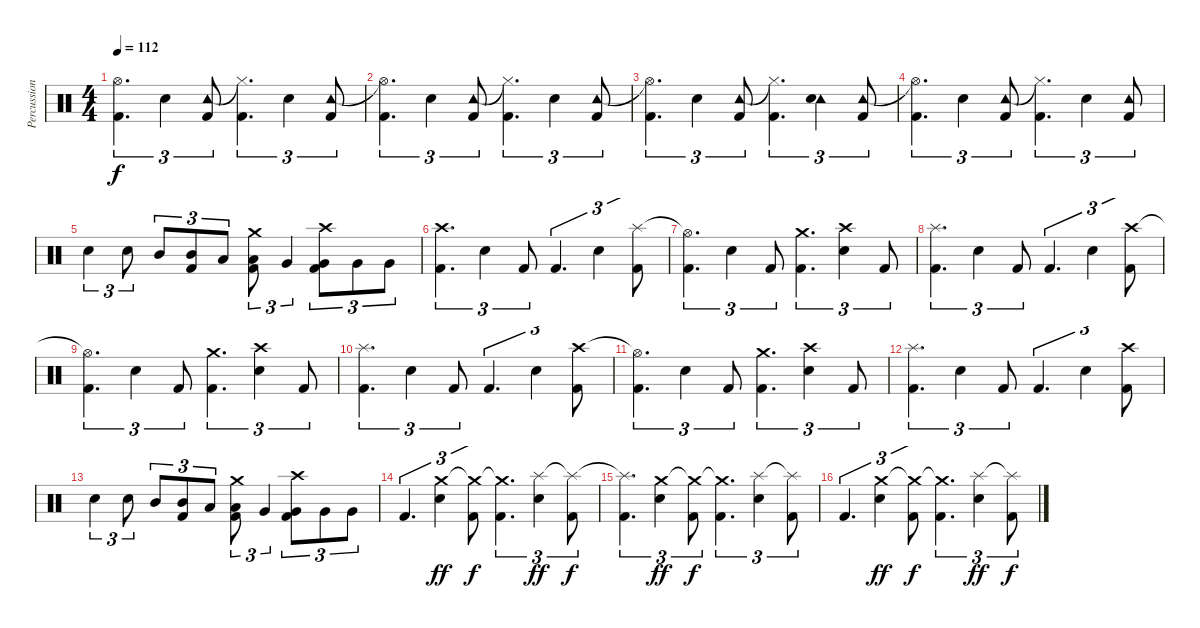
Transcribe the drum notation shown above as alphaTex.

\track ("Percussioni" "Percussion") {instrument percussion}
\staff {score}
\articulation defaults
\ts (4 4)
\tempo 112
\clef neutral
\ks c
("Hi-Hat (open)"{t} "Kick (hit) 2").4{d tu (3 2) dy f} "Snare (hit) 2".4{tu (3 2)} ("Tambourine (hit)" "Kick (hit) 2").8{tu (3 2)} ("Hi-Hat (closed)"{t} "Kick (hit) 2").4{d tu (3 2)} "Snare (hit) 2".4{tu (3 2)} ("Tambourine (hit)" "Kick (hit) 2").8{tu (3 2)} |
("Hi-Hat (open)"{t} "Kick (hit) 2").4{d tu (3 2)} "Snare (hit) 2".4{tu (3 2)} ("Tambourine (hit)" "Kick (hit) 2").8{tu (3 2)} ("Hi-Hat (closed)"{t} "Kick (hit) 2").4{d tu (3 2)} "Snare (hit) 2".4{tu (3 2)} ("Tambourine (hit)" "Kick (hit) 2").8{tu (3 2)} |
("Hi-Hat (open)"{t} "Kick (hit) 2").4{d tu (3 2)} "Snare (hit) 2".4{tu (3 2)} ("Tambourine (hit)" "Kick (hit) 2").8{tu (3 2)} ("Hi-Hat (closed)"{t} "Kick (hit) 2").4{d tu (3 2)} ("Tambourine (hit)" "Snare (hit) 2").4{tu (3 2)} ("Tambourine (hit)" "Kick (hit) 2").8{tu (3 2)} |
("Hi-Hat (open)"{t} "Kick (hit) 2").4{d tu (3 2)} "Snare (hit) 2".4{tu (3 2)} ("Tambourine (hit)" "Kick (hit) 2").8{tu (3 2)} ("Hi-Hat (closed)"{t} "Kick (hit) 2").4{d tu (3 2)} "Snare (hit) 2".4{tu (3 2)} ("Tambourine (hit)" "Kick (hit) 2").8{tu (3 2)} |
"Snare (hit) 2".4{tu (3 2)} "Snare (hit) 2".8{tu (3 2)} "Mid Tom (hit)".8{tu (3 2)} ("Mid Tom (hit)" "Kick (hit) 2").8{tu (3 2)} "Low Tom (hit)".8{tu (3 2)} ("Crash medium (hit)" "Low Tom (hit)" "Kick (hit) 2").8{tu (3 2)} "Very Low Tom (hit)".4{tu (3 2)} ("Crash high (hit)" "Very Low Tom (hit)" "Kick (hit) 2").8{tu (3 2)} "Very Low Tom (hit)".8{tu (3 2)} "Very Low Tom (hit)".8{tu (3 2)} |
("Crash high (hit)" "Kick (hit) 2").4{d tu (3 2)} "Snare (hit) 2".4{tu (3 2)} "Kick (hit) 2".8{tu (3 2)} "Kick (hit) 2".4{d tu (3 2)} "Snare (hit) 2".4{tu (3 2)} ("Splash (hit)" "Kick (hit) 2").8{tu (3 2)} |
("Hi-Hat (open)"{t} "Kick (hit) 2").4{d tu (3 2)} "Snare (hit) 2".4{tu (3 2)} "Kick (hit) 2".8{tu (3 2)} ("Crash medium (hit)" "Kick (hit) 2").4{d tu (3 2)} ("Crash high (hit)" "Snare (hit) 2").4{tu (3 2)} "Kick (hit) 2".8{tu (3 2)} |
("Splash (hit)" "Kick (hit) 2").4{d tu (3 2)} "Snare (hit) 2".4{tu (3 2)} "Kick (hit) 2".8{tu (3 2)} "Kick (hit) 2".4{d tu (3 2)} "Snare (hit) 2".4{tu (3 2)} ("Crash high (hit)" "Kick (hit) 2").8{tu (3 2)} |
("Hi-Hat (open)"{t} "Kick (hit) 2").4{d tu (3 2)} "Snare (hit) 2".4{tu (3 2)} "Kick (hit) 2".8{tu (3 2)} ("Crash medium (hit)" "Kick (hit) 2").4{d tu (3 2)} ("Crash high (hit)" "Snare (hit) 2").4{tu (3 2)} "Kick (hit) 2".8{tu (3 2)} |
("Splash (hit)" "Kick (hit) 2").4{d tu (3 2)} "Snare (hit) 2".4{tu (3 2)} "Kick (hit) 2".8{tu (3 2)} "Kick (hit) 2".4{d tu (3 2)} "Snare (hit) 2".4{tu (3 2)} ("Crash high (hit)" "Kick (hit) 2").8{tu (3 2)} |
("Hi-Hat (open)"{t} "Kick (hit) 2").4{d tu (3 2)} "Snare (hit) 2".4{tu (3 2)} "Kick (hit) 2".8{tu (3 2)} ("Crash medium (hit)" "Kick (hit) 2").4{d tu (3 2)} ("Crash high (hit)" "Snare (hit) 2").4{tu (3 2)} "Kick (hit) 2".8{tu (3 2)} |
("Splash (hit)" "Kick (hit) 2").4{d tu (3 2)} "Snare (hit) 2".4{tu (3 2)} "Kick (hit) 2".8{tu (3 2)} "Kick (hit) 2".4{d tu (3 2)} "Snare (hit) 2".4{tu (3 2)} ("Crash high (hit)" "Kick (hit) 2").8{tu (3 2)} |
"Snare (hit) 2".4{tu (3 2)} "Snare (hit) 2".8{tu (3 2)} "Mid Tom (hit)".8{tu (3 2)} ("Mid Tom (hit)" "Kick (hit) 2").8{tu (3 2)} "Low Tom (hit)".8{tu (3 2)} ("Crash medium (hit)" "Low Tom (hit)" "Kick (hit) 2").8{tu (3 2)} "Very Low Tom (hit)".4{tu (3 2)} ("Crash high (hit)" "Very Low Tom (hit)" "Kick (hit) 2").8{tu (3 2)} "Very Low Tom (hit)".8{tu (3 2)} "Very Low Tom (hit)".8{tu (3 2)} |
"Kick (hit) 2".4{d tu (3 2)} ("Crash medium (hit)" "Snare (hit) 2").4{tu (3 2) dy ff} ("Crash medium (hit)"{t} "Kick (hit) 2").8{tu (3 2) dy f} ("Crash medium (hit)"{t} "Kick (hit) 2").4{d tu (3 2)} ("Splash (hit)" "Snare (hit) 2").4{tu (3 2) dy ff} ("Splash (hit)"{t} "Kick (hit) 2").8{tu (3 2) dy f} |
("Splash (hit)"{t} "Kick (hit) 2").4{d tu (3 2)} ("Crash medium (hit)" "Snare (hit) 2").4{tu (3 2) dy ff} ("Crash medium (hit)"{t} "Kick (hit) 2").8{tu (3 2) dy f} ("Crash medium (hit)"{t} "Kick (hit) 2").4{d tu (3 2)} ("Splash (hit)" "Snare (hit) 2").4{tu (3 2)} ("Splash (hit)"{t} "Kick (hit) 2").8{tu (3 2)} |
"Kick (hit) 2".4{d tu (3 2)} ("Crash medium (hit)" "Snare (hit) 2").4{tu (3 2) dy ff} ("Crash medium (hit)"{t} "Kick (hit) 2").8{tu (3 2) dy f} ("Crash medium (hit)"{t} "Kick (hit) 2").4{d tu (3 2)} ("Splash (hit)" "Snare (hit) 2").4{tu (3 2) dy ff} ("Splash (hit)"{t} "Kick (hit) 2").8{tu (3 2) dy f}
